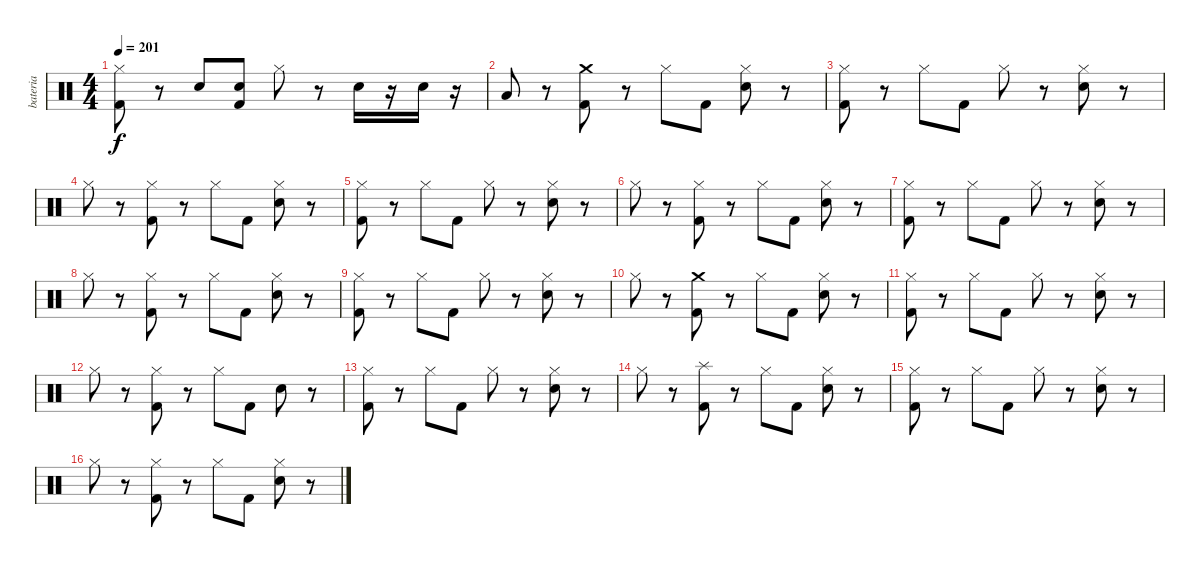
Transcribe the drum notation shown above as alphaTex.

\track ("bateria" "bateria") {instrument percussion}
\staff {score}
\articulation defaults
\ts (4 4)
\tempo 201
\clef neutral
\ks c
("Hi-Hat (closed)" "Kick (hit) 2").8{dy f} r.8 "Electric Snare (hit)".8 ("Electric Snare (hit)" "Kick (hit) 2").8 "Hi-Hat (closed)".8 r.8 "Electric Snare (hit)".16 r.16 "Electric Snare (hit)".16 r.16 |
"Low Tom (hit)".8 r.8 ("Crash medium (hit)" "Kick (hit) 2").8 r.8 "Hi-Hat (closed)".8 "Kick (hit) 2".8 ("Hi-Hat (closed)" "Electric Snare (hit)").8 r.8 |
("Hi-Hat (closed)" "Kick (hit) 2").8 r.8 "Hi-Hat (closed)".8 "Kick (hit) 2".8 "Hi-Hat (closed)".8 r.8 ("Hi-Hat (closed)" "Electric Snare (hit)").8 r.8 |
"Hi-Hat (closed)".8 r.8 ("Hi-Hat (closed)" "Kick (hit) 2").8 r.8 "Hi-Hat (closed)".8 "Kick (hit) 2".8 ("Hi-Hat (closed)" "Electric Snare (hit)").8 r.8 |
("Hi-Hat (closed)" "Kick (hit) 2").8 r.8 "Hi-Hat (closed)".8 "Kick (hit) 2".8 "Hi-Hat (closed)".8 r.8 ("Hi-Hat (closed)" "Electric Snare (hit)").8 r.8 |
"Hi-Hat (closed)".8 r.8 ("Hi-Hat (closed)" "Kick (hit) 2").8 r.8 "Hi-Hat (closed)".8 "Kick (hit) 2".8 ("Hi-Hat (closed)" "Electric Snare (hit)").8 r.8 |
("Hi-Hat (closed)" "Kick (hit) 2").8 r.8 "Hi-Hat (closed)".8 "Kick (hit) 2".8 "Hi-Hat (closed)".8 r.8 ("Hi-Hat (closed)" "Electric Snare (hit)").8 r.8 |
"Hi-Hat (closed)".8 r.8 ("Hi-Hat (closed)" "Kick (hit) 2").8 r.8 "Hi-Hat (closed)".8 "Kick (hit) 2".8 ("Hi-Hat (closed)" "Electric Snare (hit)").8 r.8 |
("Hi-Hat (closed)" "Kick (hit) 2").8 r.8 "Hi-Hat (closed)".8 "Kick (hit) 2".8 "Hi-Hat (closed)".8 r.8 ("Hi-Hat (closed)" "Electric Snare (hit)").8 r.8 |
"Hi-Hat (closed)".8 r.8 ("Crash medium (hit)" "Kick (hit) 2").8 r.8 "Hi-Hat (closed)".8 "Kick (hit) 2".8 ("Hi-Hat (closed)" "Electric Snare (hit)").8 r.8 |
("Hi-Hat (closed)" "Kick (hit) 2").8 r.8 "Hi-Hat (closed)".8 "Kick (hit) 2".8 "Hi-Hat (closed)".8 r.8 ("Hi-Hat (closed)" "Electric Snare (hit)").8 r.8 |
"Hi-Hat (closed)".8 r.8 ("Hi-Hat (closed)" "Kick (hit) 2").8 r.8 "Hi-Hat (closed)".8 "Kick (hit) 2".8 "Snare (hit) 2".8 r.8 |
("Hi-Hat (closed)" "Kick (hit) 2").8 r.8 "Hi-Hat (closed)".8 "Kick (hit) 2".8 "Hi-Hat (closed)".8 r.8 ("Hi-Hat (closed)" "Electric Snare (hit)").8 r.8 |
"Hi-Hat (closed)".8 r.8 ("Splash (hit)" "Kick (hit) 2").8 r.8 "Hi-Hat (closed)".8 "Kick (hit) 2".8 ("Hi-Hat (closed)" "Electric Snare (hit)").8 r.8 |
("Hi-Hat (closed)" "Kick (hit) 2").8 r.8 "Hi-Hat (closed)".8 "Kick (hit) 2".8 "Hi-Hat (closed)".8 r.8 ("Hi-Hat (closed)" "Electric Snare (hit)").8 r.8 |
"Hi-Hat (closed)".8 r.8 ("Hi-Hat (closed)" "Kick (hit) 2").8 r.8 "Hi-Hat (closed)".8 "Kick (hit) 2".8 ("Hi-Hat (closed)" "Electric Snare (hit)").8 r.8
